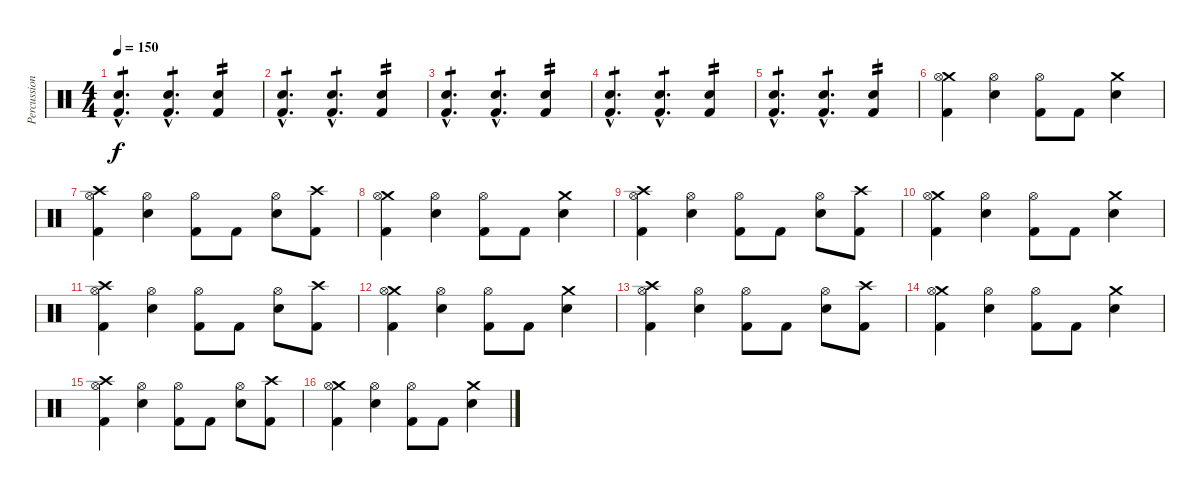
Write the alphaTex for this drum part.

\track ("Percussion" "Percussion") {instrument percussion}
\staff {score}
\articulation defaults
\ts (4 4)
\tempo 150
\clef neutral
\ks c
("Snare (hit) 2"{hac} "Kick (hit) 2"{hac}).4{d tp 1 dy f} ("Snare (hit) 2"{hac} "Kick (hit) 2"{hac}).4{d tp 1} ("Snare (hit) 2" "Kick (hit) 2").4{tp 2} |
("Snare (hit) 2"{hac} "Kick (hit) 2"{hac}).4{d tp 1} ("Snare (hit) 2"{hac} "Kick (hit) 2"{hac}).4{d tp 1} ("Snare (hit) 2" "Kick (hit) 2").4{tp 2} |
("Snare (hit) 2"{hac} "Kick (hit) 2"{hac}).4{d tp 1} ("Snare (hit) 2"{hac} "Kick (hit) 2"{hac}).4{d tp 1} ("Snare (hit) 2" "Kick (hit) 2").4{tp 2} |
("Snare (hit) 2"{hac} "Kick (hit) 2"{hac}).4{d tp 1} ("Snare (hit) 2"{hac} "Kick (hit) 2"{hac}).4{d tp 1} ("Snare (hit) 2" "Kick (hit) 2").4{tp 2} |
("Snare (hit) 2"{hac} "Kick (hit) 2"{hac}).4{d tp 1} ("Snare (hit) 2"{hac} "Kick (hit) 2"{hac}).4{d tp 1} ("Snare (hit) 2" "Kick (hit) 2").4{tp 2} |
("Crash medium (hit)" "Hi-Hat (open)" "Kick (hit) 2").4 ("Hi-Hat (open)" "Snare (hit) 2").4 ("Hi-Hat (open)" "Kick (hit) 2").8 "Kick (hit) 2".8 ("Crash medium (hit)" "Snare (hit) 2").4 |
("Crash high (hit)" "Hi-Hat (open)" "Kick (hit) 2").4 ("Hi-Hat (open)" "Snare (hit) 2").4 ("Hi-Hat (open)" "Kick (hit) 2").8 "Kick (hit) 2".8 ("Hi-Hat (open)" "Snare (hit) 2").8 ("Crash high (hit)" "Kick (hit) 2").8 |
("Crash medium (hit)" "Hi-Hat (open)" "Kick (hit) 2").4 ("Hi-Hat (open)" "Snare (hit) 2").4 ("Hi-Hat (open)" "Kick (hit) 2").8 "Kick (hit) 2".8 ("Crash medium (hit)" "Snare (hit) 2").4 |
("Crash high (hit)" "Hi-Hat (open)" "Kick (hit) 2").4 ("Hi-Hat (open)" "Snare (hit) 2").4 ("Hi-Hat (open)" "Kick (hit) 2").8 "Kick (hit) 2".8 ("Hi-Hat (open)" "Snare (hit) 2").8 ("Crash high (hit)" "Kick (hit) 2").8 |
("Crash medium (hit)" "Hi-Hat (open)" "Kick (hit) 2").4 ("Hi-Hat (open)" "Snare (hit) 2").4 ("Hi-Hat (open)" "Kick (hit) 2").8 "Kick (hit) 2".8 ("Crash medium (hit)" "Snare (hit) 2").4 |
("Crash high (hit)" "Hi-Hat (open)" "Kick (hit) 2").4 ("Hi-Hat (open)" "Snare (hit) 2").4 ("Hi-Hat (open)" "Kick (hit) 2").8 "Kick (hit) 2".8 ("Hi-Hat (open)" "Snare (hit) 2").8 ("Crash high (hit)" "Kick (hit) 2").8 |
("Crash medium (hit)" "Hi-Hat (open)" "Kick (hit) 2").4 ("Hi-Hat (open)" "Snare (hit) 2").4 ("Hi-Hat (open)" "Kick (hit) 2").8 "Kick (hit) 2".8 ("Crash medium (hit)" "Snare (hit) 2").4 |
("Crash high (hit)" "Hi-Hat (open)" "Kick (hit) 2").4 ("Hi-Hat (open)" "Snare (hit) 2").4 ("Hi-Hat (open)" "Kick (hit) 2").8 "Kick (hit) 2".8 ("Hi-Hat (open)" "Snare (hit) 2").8 ("Crash high (hit)" "Kick (hit) 2").8 |
("Crash medium (hit)" "Hi-Hat (open)" "Kick (hit) 2").4 ("Hi-Hat (open)" "Snare (hit) 2").4 ("Hi-Hat (open)" "Kick (hit) 2").8 "Kick (hit) 2".8 ("Crash medium (hit)" "Snare (hit) 2").4 |
("Crash high (hit)" "Hi-Hat (open)" "Kick (hit) 2").4 ("Hi-Hat (open)" "Snare (hit) 2").4 ("Hi-Hat (open)" "Kick (hit) 2").8 "Kick (hit) 2".8 ("Hi-Hat (open)" "Snare (hit) 2").8 ("Crash high (hit)" "Kick (hit) 2").8 |
("Crash medium (hit)" "Hi-Hat (open)" "Kick (hit) 2").4 ("Hi-Hat (open)" "Snare (hit) 2").4 ("Hi-Hat (open)" "Kick (hit) 2").8 "Kick (hit) 2".8 ("Crash medium (hit)" "Snare (hit) 2").4
